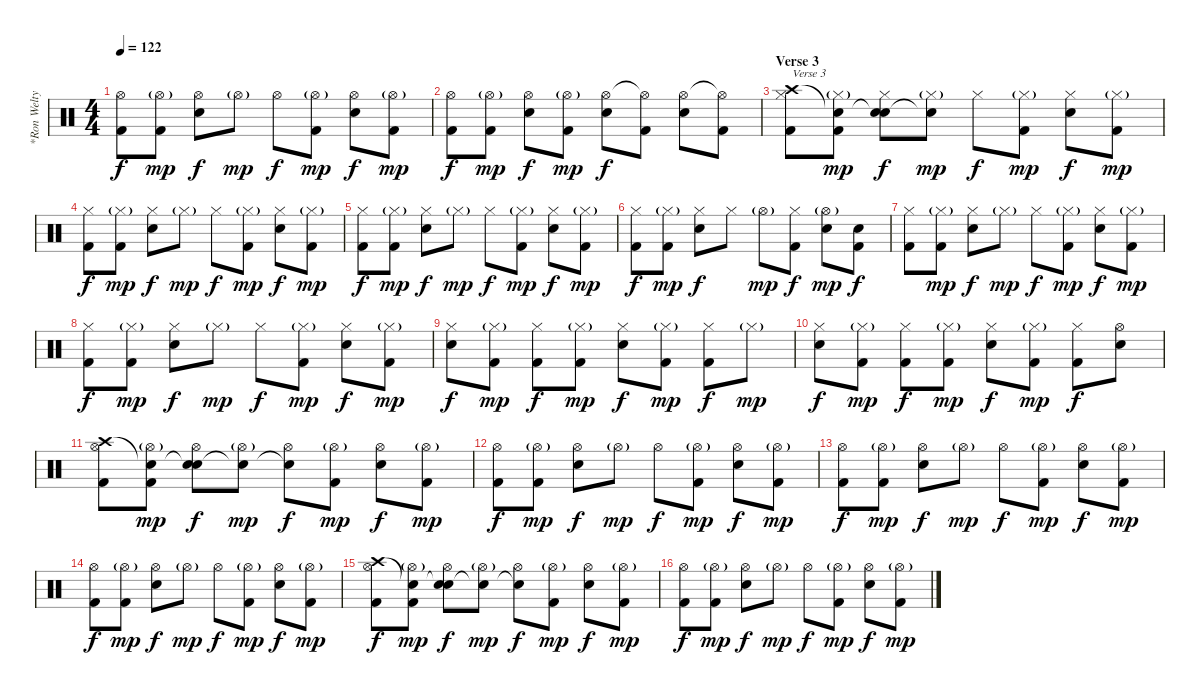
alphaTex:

\track ("*Ron Welty (Ex-drummer)" "*Ron Welty") {instrument percussion}
\staff {score}
\articulation defaults
\ts (4 4)
\tempo 122
\clef neutral
\ks c
("Hi-Hat (open)" "Kick (hit) 2").8{dy f} ("Hi-Hat (open)"{g} "Kick (hit) 2").8{dy mp} ("Hi-Hat (open)" "Electric Snare (hit)").8{dy f} "Hi-Hat (open)"{g}.8{dy mp} "Hi-Hat (open)".8{dy f} ("Hi-Hat (open)"{g} "Kick (hit) 2").8{dy mp} ("Hi-Hat (open)" "Electric Snare (hit)").8{dy f} ("Hi-Hat (open)"{g} "Kick (hit) 2").8{dy mp} |
("Hi-Hat (open)" "Kick (hit) 2").8{dy f} ("Hi-Hat (open)"{g} "Kick (hit) 2").8{dy mp} ("Hi-Hat (open)" "Electric Snare (hit)").8{dy f} ("Hi-Hat (open)"{g} "Kick (hit) 2").8{dy mp} ("Hi-Hat (open)" "Electric Snare (hit)").8{dy f} ("Hi-Hat (open)"{t} "Kick (hit) 2").8 ("Hi-Hat (open)" "Electric Snare (hit)").8 ("Hi-Hat (open)"{t} "Kick (hit) 2").8 |
\section ("" "Verse 3")
("Crash high (hit)" "Hi-Hat (closed)" "Kick (hit) 2").8{txt "Verse 3" balance 8} ("Snare (hit)"{t} "Hi-Hat (closed)"{g} "Kick (hit) 2").8{dy mp balance 8} ("Snare (hit)"{t} "Hi-Hat (closed)" "Electric Snare (hit)").8{dy f balance 8} ("Snare (hit)"{t} "Hi-Hat (closed)"{g}).8{dy mp balance 8} "Hi-Hat (closed)".8{dy f} ("Hi-Hat (closed)"{g} "Kick (hit) 2").8{dy mp balance 8} ("Hi-Hat (closed)" "Electric Snare (hit)").8{dy f} ("Hi-Hat (closed)"{g} "Kick (hit) 2").8{dy mp} |
("Hi-Hat (closed)" "Kick (hit) 2").8{dy f balance 8} ("Hi-Hat (closed)"{g} "Kick (hit) 2").8{dy mp} ("Hi-Hat (closed)" "Electric Snare (hit)").8{dy f} "Hi-Hat (closed)"{g}.8{dy mp} "Hi-Hat (closed)".8{dy f} ("Hi-Hat (closed)"{g} "Kick (hit) 2").8{dy mp} ("Hi-Hat (closed)" "Electric Snare (hit)").8{dy f} ("Hi-Hat (closed)"{g} "Kick (hit) 2").8{dy mp} |
("Hi-Hat (closed)" "Kick (hit) 2").8{dy f balance 8} ("Hi-Hat (closed)"{g} "Kick (hit) 2").8{dy mp} ("Hi-Hat (closed)" "Electric Snare (hit)").8{dy f} "Hi-Hat (closed)"{g}.8{dy mp} "Hi-Hat (closed)".8{dy f} ("Hi-Hat (closed)"{g} "Kick (hit) 2").8{dy mp} ("Hi-Hat (closed)" "Electric Snare (hit)").8{dy f} ("Hi-Hat (closed)"{g} "Kick (hit) 2").8{dy mp} |
("Hi-Hat (closed)" "Kick (hit) 2").8{dy f balance 8} ("Hi-Hat (closed)"{g} "Kick (hit) 2").8{dy mp} ("Hi-Hat (closed)" "Electric Snare (hit)").8{dy f} "Hi-Hat (closed)".8 "Hi-Hat (open)"{g}.8{dy mp} ("Hi-Hat (closed)" "Kick (hit) 2").8{dy f} ("Hi-Hat (open)"{g} "Electric Snare (hit)").8{dy mp} ("Snare (hit)" "Kick (hit) 2").8{dy f} |
("Hi-Hat (closed)" "Kick (hit) 2").8{balance 8} ("Hi-Hat (closed)"{g} "Kick (hit) 2").8{dy mp} ("Hi-Hat (closed)" "Electric Snare (hit)").8{dy f} "Hi-Hat (closed)"{g}.8{dy mp} "Hi-Hat (closed)".8{dy f} ("Hi-Hat (closed)"{g} "Kick (hit) 2").8{dy mp} ("Hi-Hat (closed)" "Electric Snare (hit)").8{dy f} ("Hi-Hat (closed)"{g} "Kick (hit) 2").8{dy mp} |
("Hi-Hat (closed)" "Kick (hit) 2").8{dy f balance 8} ("Hi-Hat (closed)"{g} "Kick (hit) 2").8{dy mp} ("Hi-Hat (closed)" "Electric Snare (hit)").8{dy f} "Hi-Hat (closed)"{g}.8{dy mp} "Hi-Hat (closed)".8{dy f} ("Hi-Hat (closed)"{g} "Kick (hit) 2").8{dy mp} ("Hi-Hat (closed)" "Electric Snare (hit)").8{dy f} ("Hi-Hat (closed)"{g} "Kick (hit) 2").8{dy mp} |
("Hi-Hat (closed)" "Electric Snare (hit)").8{dy f balance 8} ("Hi-Hat (closed)"{g} "Kick (hit) 2").8{dy mp} ("Hi-Hat (closed)" "Kick (hit) 2").8{dy f} ("Hi-Hat (closed)"{g} "Kick (hit) 2").8{dy mp} ("Hi-Hat (closed)" "Electric Snare (hit)").8{dy f} ("Hi-Hat (closed)"{g} "Kick (hit) 2").8{dy mp} ("Hi-Hat (closed)" "Kick (hit) 2").8{dy f} "Hi-Hat (closed)"{g}.8{dy mp} |
("Hi-Hat (closed)" "Electric Snare (hit)").8{dy f balance 8} ("Hi-Hat (closed)"{g} "Kick (hit) 2").8{dy mp} ("Hi-Hat (closed)" "Kick (hit) 2").8{dy f} ("Hi-Hat (closed)"{g} "Kick (hit) 2").8{dy mp} ("Hi-Hat (closed)" "Electric Snare (hit)").8{dy f} ("Hi-Hat (closed)"{g} "Kick (hit) 2").8{dy mp} ("Hi-Hat (closed)" "Kick (hit) 2").8{dy f} ("Hi-Hat (open)" "Electric Snare (hit)").8 |
("Crash high (hit)" "Hi-Hat (open)" "Kick (hit) 2").8{balance 8} ("Snare (hit)"{t} "Hi-Hat (open)"{g} "Kick (hit) 2").8{dy mp} ("Snare (hit)"{t} "Hi-Hat (open)" "Electric Snare (hit)").8{dy f} ("Snare (hit)"{t} "Hi-Hat (open)"{g}).8{dy mp} ("Snare (hit)"{t} "Hi-Hat (open)").8{dy f} ("Hi-Hat (open)"{g} "Kick (hit) 2").8{dy mp} ("Hi-Hat (open)" "Electric Snare (hit)").8{dy f} ("Hi-Hat (open)"{g} "Kick (hit) 2").8{dy mp} |
("Hi-Hat (open)" "Kick (hit) 2").8{dy f} ("Hi-Hat (open)"{g} "Kick (hit) 2").8{dy mp} ("Hi-Hat (open)" "Electric Snare (hit)").8{dy f} "Hi-Hat (open)"{g}.8{dy mp} "Hi-Hat (open)".8{dy f} ("Hi-Hat (open)"{g} "Kick (hit) 2").8{dy mp} ("Hi-Hat (open)" "Electric Snare (hit)").8{dy f} ("Hi-Hat (open)"{g} "Kick (hit) 2").8{dy mp} |
("Hi-Hat (open)" "Kick (hit) 2").8{dy f} ("Hi-Hat (open)"{g} "Kick (hit) 2").8{dy mp} ("Hi-Hat (open)" "Electric Snare (hit)").8{dy f} "Hi-Hat (open)"{g}.8{dy mp} "Hi-Hat (open)".8{dy f} ("Hi-Hat (open)"{g} "Kick (hit) 2").8{dy mp} ("Hi-Hat (open)" "Electric Snare (hit)").8{dy f} ("Hi-Hat (open)"{g} "Kick (hit) 2").8{dy mp} |
("Hi-Hat (open)" "Kick (hit) 2").8{dy f} ("Hi-Hat (open)"{g} "Kick (hit) 2").8{dy mp} ("Hi-Hat (open)" "Electric Snare (hit)").8{dy f} "Hi-Hat (open)"{g}.8{dy mp} "Hi-Hat (open)".8{dy f} ("Hi-Hat (open)"{g} "Kick (hit) 2").8{dy mp} ("Hi-Hat (open)" "Electric Snare (hit)").8{dy f} ("Hi-Hat (open)"{g} "Kick (hit) 2").8{dy mp} |
("Crash high (hit)" "Hi-Hat (open)" "Kick (hit) 2").8{dy f} ("Snare (hit)"{t} "Hi-Hat (open)"{g} "Kick (hit) 2").8{dy mp} ("Snare (hit)"{t} "Hi-Hat (open)" "Electric Snare (hit)").8{dy f} ("Snare (hit)"{t} "Hi-Hat (open)"{g}).8{dy mp} ("Snare (hit)"{t} "Hi-Hat (open)").8{dy f} ("Hi-Hat (open)"{g} "Kick (hit) 2").8{dy mp} ("Hi-Hat (open)" "Electric Snare (hit)").8{dy f} ("Hi-Hat (open)"{g} "Kick (hit) 2").8{dy mp} |
("Hi-Hat (open)" "Kick (hit) 2").8{dy f} ("Hi-Hat (open)"{g} "Kick (hit) 2").8{dy mp} ("Hi-Hat (open)" "Electric Snare (hit)").8{dy f} "Hi-Hat (open)"{g}.8{dy mp} "Hi-Hat (open)".8{dy f} ("Hi-Hat (open)"{g} "Kick (hit) 2").8{dy mp} ("Hi-Hat (open)" "Electric Snare (hit)").8{dy f} ("Hi-Hat (open)"{g} "Kick (hit) 2").8{dy mp}
